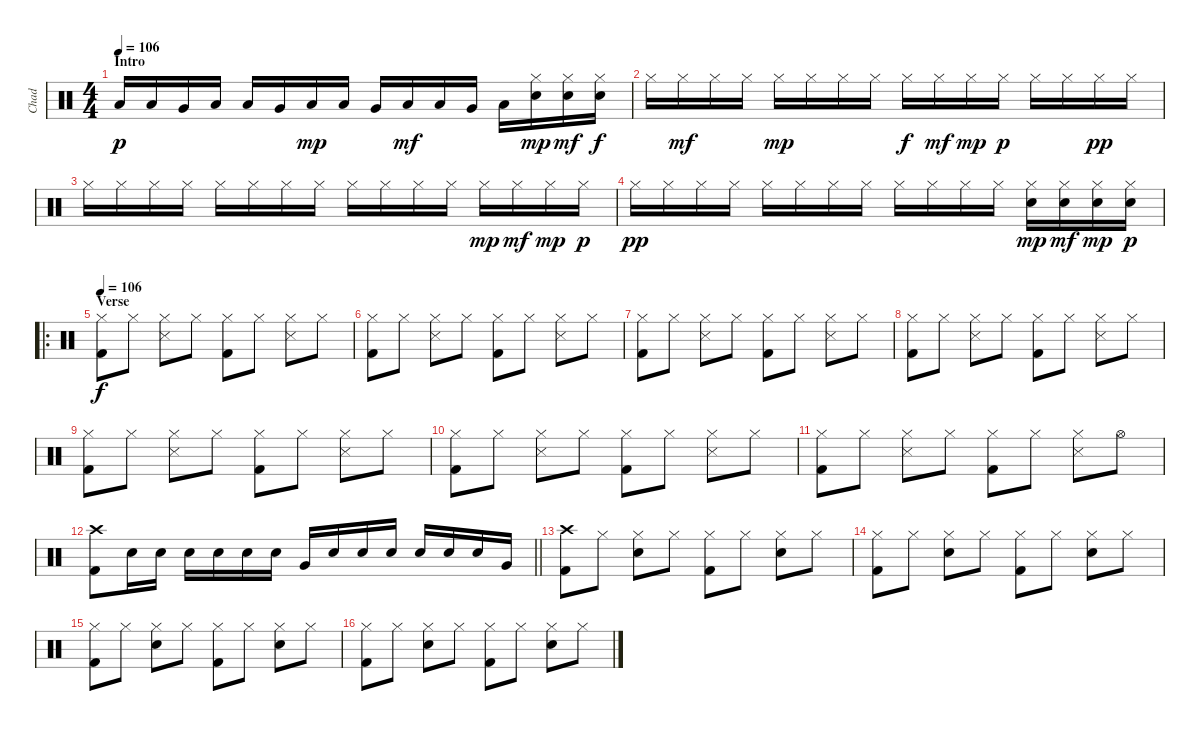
\track ("Chad" "Chad") {instrument percussion}
\staff {score}
\articulation defaults
\ts (4 4)
\section ("" "Intro")
\tempo 106
\tempo 96
\tempo 106
\clef neutral
\ks c "Low Floor Tom (hit)".16{dy p} "Low Tom (hit)".16 "Very Low Tom (hit)".16 "Low Floor Tom (hit)".16 "Low Tom (hit)".16 "Very Low Tom (hit)".16 "Low Floor Tom (hit)".16{dy mp} "Low Tom (hit)".16 "Very Low Tom (hit)".16 "Low Floor Tom (hit)".16{dy mf} "Low Tom (hit)".16 "Very Low Tom (hit)".16 "Low Floor Tom (hit)".16
("Electric Snare (hit)" "Hi-Hat (closed)").16{dy mp} ("Electric Snare (hit)" "Hi-Hat (closed)").16{dy mf} ("Electric Snare (hit)" "Hi-Hat (closed)").16{dy f} |
"Hi-Hat (closed)".16 "Hi-Hat (closed)".16{dy mf} "Hi-Hat (closed)".16 "Hi-Hat (closed)".16 "Hi-Hat (closed)".16{dy mp} "Hi-Hat (closed)".16 "Hi-Hat (closed)".16 "Hi-Hat (closed)".16 "Hi-Hat (closed)".16{dy f} "Hi-Hat (closed)".16{dy mf} "Hi-Hat (closed)".16{dy mp} "Hi-Hat (closed)".16{dy p} "Hi-Hat (closed)".16 "Hi-Hat (closed)".16 "Hi-Hat (closed)".16{dy pp} "Hi-Hat (closed)".16 |
"Hi-Hat (closed)".16 "Hi-Hat (closed)".16 "Hi-Hat (closed)".16 "Hi-Hat (closed)".16 "Hi-Hat (closed)".16 "Hi-Hat (closed)".16 "Hi-Hat (closed)".16 "Hi-Hat (closed)".16 "Hi-Hat (closed)".16 "Hi-Hat (closed)".16 "Hi-Hat (closed)".16 "Hi-Hat (closed)".16 "Hi-Hat (closed)".16{dy mp} "Hi-Hat (closed)".16{dy mf} "Hi-Hat (closed)".16{dy mp} "Hi-Hat (closed)".16{dy p} |
"Hi-Hat (closed)".16{dy pp} "Hi-Hat (closed)".16 "Hi-Hat (closed)".16 "Hi-Hat (closed)".16 "Hi-Hat (closed)".16 "Hi-Hat (closed)".16 "Hi-Hat (closed)".16 "Hi-Hat (closed)".16 "Hi-Hat (closed)".16 "Hi-Hat (closed)".16 "Hi-Hat (closed)".16 "Hi-Hat (closed)".16 ("Electric Snare (hit)" "Hi-Hat (closed)").16{dy mp} ("Electric Snare (hit)" "Hi-Hat (closed)").16{dy mf} ("Electric Snare (hit)" "Hi-Hat (closed)").16{dy mp} ("Electric Snare (hit)" "Hi-Hat (closed)").16{dy p} |
\ro
\section ("" "Verse")
\tempo 106
("Hi-Hat (closed)" "Kick (hit) 2").8{dy f} "Hi-Hat (closed)".8 ("Hi-Hat (closed)" "Snare (side stick) 3").8 "Hi-Hat (closed)".8 ("Hi-Hat (closed)" "Kick (hit) 2").8 "Hi-Hat (closed)".8 ("Hi-Hat (closed)" "Snare (side stick) 3").8 "Hi-Hat (closed)".8 |
("Hi-Hat (closed)" "Kick (hit) 2").8 "Hi-Hat (closed)".8 ("Hi-Hat (closed)" "Snare (side stick) 3").8 "Hi-Hat (closed)".8 ("Hi-Hat (closed)" "Kick (hit) 2").8 "Hi-Hat (closed)".8 ("Hi-Hat (closed)" "Snare (side stick) 3").8 "Hi-Hat (closed)".8 |
("Hi-Hat (closed)" "Kick (hit) 2").8 "Hi-Hat (closed)".8 ("Hi-Hat (closed)" "Snare (side stick) 3").8 "Hi-Hat (closed)".8 ("Hi-Hat (closed)" "Kick (hit) 2").8 "Hi-Hat (closed)".8 ("Hi-Hat (closed)" "Snare (side stick) 3").8 "Hi-Hat (closed)".8 |
("Hi-Hat (closed)" "Kick (hit) 2").8 "Hi-Hat (closed)".8 ("Hi-Hat (closed)" "Snare (side stick) 3").8 "Hi-Hat (closed)".8 ("Hi-Hat (closed)" "Kick (hit) 2").8 "Hi-Hat (closed)".8 ("Hi-Hat (closed)" "Snare (side stick) 3").8 "Hi-Hat (closed)".8 |
("Hi-Hat (closed)" "Kick (hit) 2").8 "Hi-Hat (closed)".8 ("Hi-Hat (closed)" "Snare (side stick) 3").8 "Hi-Hat (closed)".8 ("Hi-Hat (closed)" "Kick (hit) 2").8 "Hi-Hat (closed)".8 ("Hi-Hat (closed)" "Snare (side stick) 3").8 "Hi-Hat (closed)".8 |
("Hi-Hat (closed)" "Kick (hit) 2").8 "Hi-Hat (closed)".8 ("Hi-Hat (closed)" "Snare (side stick) 3").8 "Hi-Hat (closed)".8 ("Hi-Hat (closed)" "Kick (hit) 2").8 "Hi-Hat (closed)".8 ("Hi-Hat (closed)" "Snare (side stick) 3").8 "Hi-Hat (closed)".8 |
("Hi-Hat (closed)" "Kick (hit) 2").8 "Hi-Hat (closed)".8 ("Hi-Hat (closed)" "Snare (side stick) 3").8 "Hi-Hat (closed)".8 ("Hi-Hat (closed)" "Kick (hit) 2").8 "Hi-Hat (closed)".8 ("Hi-Hat (closed)" "Snare (side stick) 3").8 "Hi-Hat (open)".8 |
\barLineRight lightlight
("Crash high (hit)" "Kick (hit) 2").8 "Electric Snare (hit)".16 "Electric Snare (hit)".16 "Electric Snare (hit)".16 "Electric Snare (hit)".16 "Electric Snare (hit)".16 "Electric Snare (hit)".16 "Very Low Tom (hit)".16 "Electric Snare (hit)".16 "Electric Snare (hit)".16 "Electric Snare (hit)".16 "Electric Snare (hit)".16 "Electric Snare (hit)".16 "Electric Snare (hit)".16 "Very Low Tom (hit)".16 |
("Crash high (hit)" "Kick (hit) 2").8 "Hi-Hat (closed)".8 ("Snare (hit) 2" "Hi-Hat (closed)").8 "Hi-Hat (closed)".8 ("Hi-Hat (closed)" "Kick (hit) 2").8 "Hi-Hat (closed)".8 ("Snare (hit) 2" "Hi-Hat (closed)").8 "Hi-Hat (closed)".8 |
("Hi-Hat (closed)" "Kick (hit) 2").8 "Hi-Hat (closed)".8 ("Snare (hit) 2" "Hi-Hat (closed)").8 "Hi-Hat (closed)".8 ("Hi-Hat (closed)" "Kick (hit) 2").8 "Hi-Hat (closed)".8 ("Snare (hit) 2" "Hi-Hat (closed)").8 "Hi-Hat (closed)".8 |
("Hi-Hat (closed)" "Kick (hit) 2").8 "Hi-Hat (closed)".8 ("Snare (hit) 2" "Hi-Hat (closed)").8 "Hi-Hat (closed)".8 ("Hi-Hat (closed)" "Kick (hit) 2").8 "Hi-Hat (closed)".8 ("Snare (hit) 2" "Hi-Hat (closed)").8 "Hi-Hat (closed)".8 |
("Hi-Hat (closed)" "Kick (hit) 2").8 "Hi-Hat (closed)".8 ("Snare (hit) 2" "Hi-Hat (closed)").8 "Hi-Hat (closed)".8 ("Hi-Hat (closed)" "Kick (hit) 2").8 "Hi-Hat (closed)".8 ("Snare (hit) 2" "Hi-Hat (closed)").8 "Hi-Hat (closed)".8
